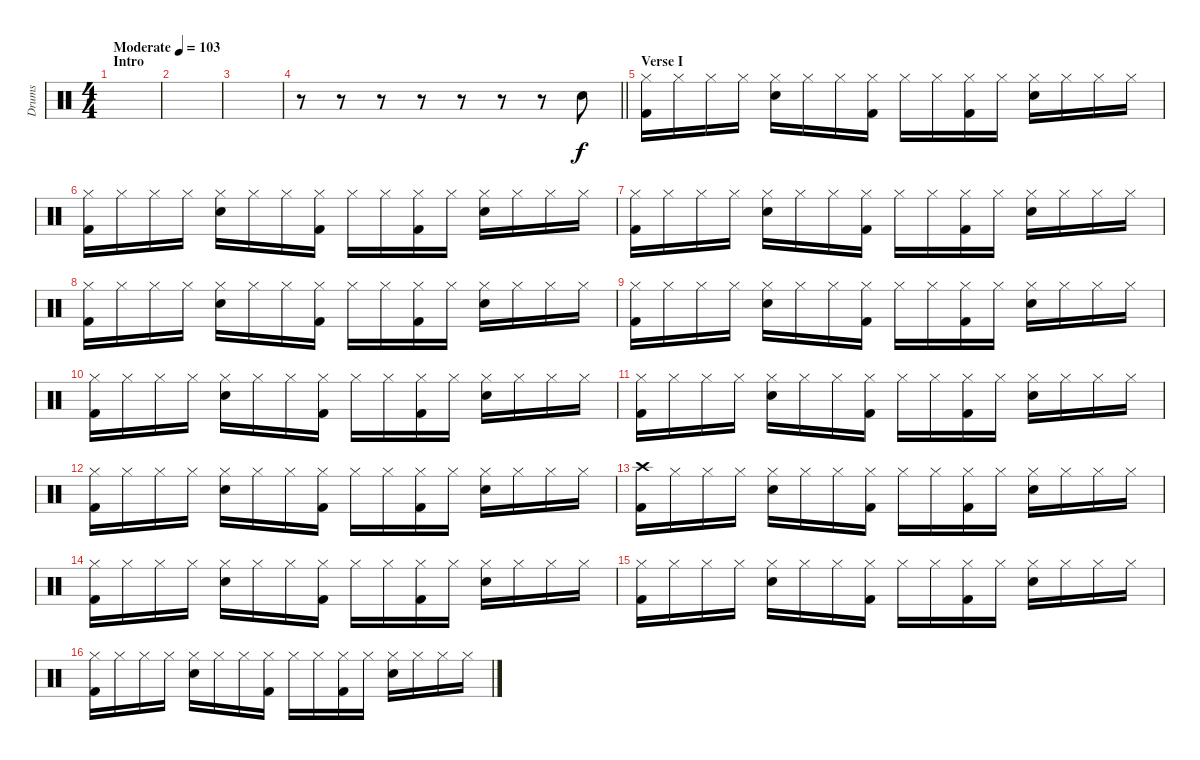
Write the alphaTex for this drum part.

\track ("Drums" "Drums") {instrument percussion}
\staff {score}
\articulation defaults
\ts (4 4)
\section ("" "Intro")
\tempo (103 "Moderate")
\clef neutral
\ks c
|
|
|
\barLineRight lightlight
r.8 r.8 r.8 r.8 r.8 r.8 r.8 "Electric Snare (hit)".8 |
\section ("" "Verse I")
("Hi-Hat (closed)" "Kick (hit) 2").16 "Hi-Hat (closed)".16 "Hi-Hat (closed)".16 "Hi-Hat (closed)".16 ("Hi-Hat (closed)" "Electric Snare (hit)").16 "Hi-Hat (closed)".16 "Hi-Hat (closed)".16 ("Hi-Hat (closed)" "Kick (hit) 2").16 "Hi-Hat (closed)".16 "Hi-Hat (closed)".16 ("Hi-Hat (closed)" "Kick (hit) 2").16 "Hi-Hat (closed)".16 ("Hi-Hat (closed)" "Electric Snare (hit)").16 "Hi-Hat (closed)".16 "Hi-Hat (closed)".16 "Hi-Hat (closed)".16 |
("Hi-Hat (closed)" "Kick (hit) 2").16 "Hi-Hat (closed)".16 "Hi-Hat (closed)".16 "Hi-Hat (closed)".16 ("Hi-Hat (closed)" "Electric Snare (hit)").16 "Hi-Hat (closed)".16 "Hi-Hat (closed)".16 ("Hi-Hat (closed)" "Kick (hit) 2").16 "Hi-Hat (closed)".16 "Hi-Hat (closed)".16 ("Hi-Hat (closed)" "Kick (hit) 2").16 "Hi-Hat (closed)".16 ("Hi-Hat (closed)" "Electric Snare (hit)").16 "Hi-Hat (closed)".16 "Hi-Hat (closed)".16 "Hi-Hat (closed)".16 |
("Hi-Hat (closed)" "Kick (hit) 2").16 "Hi-Hat (closed)".16 "Hi-Hat (closed)".16 "Hi-Hat (closed)".16 ("Hi-Hat (closed)" "Electric Snare (hit)").16 "Hi-Hat (closed)".16 "Hi-Hat (closed)".16 ("Hi-Hat (closed)" "Kick (hit) 2").16 "Hi-Hat (closed)".16 "Hi-Hat (closed)".16 ("Hi-Hat (closed)" "Kick (hit) 2").16 "Hi-Hat (closed)".16 ("Hi-Hat (closed)" "Electric Snare (hit)").16 "Hi-Hat (closed)".16 "Hi-Hat (closed)".16 "Hi-Hat (closed)".16 |
("Hi-Hat (closed)" "Kick (hit) 2").16 "Hi-Hat (closed)".16 "Hi-Hat (closed)".16 "Hi-Hat (closed)".16 ("Hi-Hat (closed)" "Electric Snare (hit)").16 "Hi-Hat (closed)".16 "Hi-Hat (closed)".16 ("Hi-Hat (closed)" "Kick (hit) 2").16 "Hi-Hat (closed)".16 "Hi-Hat (closed)".16 ("Hi-Hat (closed)" "Kick (hit) 2").16 "Hi-Hat (closed)".16 ("Hi-Hat (closed)" "Electric Snare (hit)").16 "Hi-Hat (closed)".16 "Hi-Hat (closed)".16 "Hi-Hat (closed)".16 |
("Hi-Hat (closed)" "Kick (hit) 2").16 "Hi-Hat (closed)".16 "Hi-Hat (closed)".16 "Hi-Hat (closed)".16 ("Hi-Hat (closed)" "Electric Snare (hit)").16 "Hi-Hat (closed)".16 "Hi-Hat (closed)".16 ("Hi-Hat (closed)" "Kick (hit) 2").16 "Hi-Hat (closed)".16 "Hi-Hat (closed)".16 ("Hi-Hat (closed)" "Kick (hit) 2").16 "Hi-Hat (closed)".16 ("Hi-Hat (closed)" "Electric Snare (hit)").16 "Hi-Hat (closed)".16 "Hi-Hat (closed)".16 "Hi-Hat (closed)".16 |
("Hi-Hat (closed)" "Kick (hit) 2").16 "Hi-Hat (closed)".16 "Hi-Hat (closed)".16 "Hi-Hat (closed)".16 ("Hi-Hat (closed)" "Electric Snare (hit)").16 "Hi-Hat (closed)".16 "Hi-Hat (closed)".16 ("Hi-Hat (closed)" "Kick (hit) 2").16 "Hi-Hat (closed)".16 "Hi-Hat (closed)".16 ("Hi-Hat (closed)" "Kick (hit) 2").16 "Hi-Hat (closed)".16 ("Hi-Hat (closed)" "Electric Snare (hit)").16 "Hi-Hat (closed)".16 "Hi-Hat (closed)".16 "Hi-Hat (closed)".16 |
("Hi-Hat (closed)" "Kick (hit) 2").16 "Hi-Hat (closed)".16 "Hi-Hat (closed)".16 "Hi-Hat (closed)".16 ("Hi-Hat (closed)" "Electric Snare (hit)").16 "Hi-Hat (closed)".16 "Hi-Hat (closed)".16 ("Hi-Hat (closed)" "Kick (hit) 2").16 "Hi-Hat (closed)".16 "Hi-Hat (closed)".16 ("Hi-Hat (closed)" "Kick (hit) 2").16 "Hi-Hat (closed)".16 ("Hi-Hat (closed)" "Electric Snare (hit)").16 "Hi-Hat (closed)".16 "Hi-Hat (closed)".16 "Hi-Hat (closed)".16 |
("Hi-Hat (closed)" "Kick (hit) 2").16 "Hi-Hat (closed)".16 "Hi-Hat (closed)".16 "Hi-Hat (closed)".16 ("Hi-Hat (closed)" "Electric Snare (hit)").16 "Hi-Hat (closed)".16 "Hi-Hat (closed)".16 ("Hi-Hat (closed)" "Kick (hit) 2").16 "Hi-Hat (closed)".16 "Hi-Hat (closed)".16 ("Hi-Hat (closed)" "Kick (hit) 2").16 "Hi-Hat (closed)".16 ("Hi-Hat (closed)" "Electric Snare (hit)").16 "Hi-Hat (closed)".16 "Hi-Hat (closed)".16 "Hi-Hat (closed)".16 |
("Crash high (hit)" "Kick (hit) 2").16 "Hi-Hat (closed)".16 "Hi-Hat (closed)".16 "Hi-Hat (closed)".16 ("Hi-Hat (closed)" "Electric Snare (hit)").16 "Hi-Hat (closed)".16 "Hi-Hat (closed)".16 ("Hi-Hat (closed)" "Kick (hit) 2").16 "Hi-Hat (closed)".16 "Hi-Hat (closed)".16 ("Hi-Hat (closed)" "Kick (hit) 2").16 "Hi-Hat (closed)".16 ("Hi-Hat (closed)" "Electric Snare (hit)").16 "Hi-Hat (closed)".16 "Hi-Hat (closed)".16 "Hi-Hat (closed)".16 |
("Hi-Hat (closed)" "Kick (hit) 2").16 "Hi-Hat (closed)".16 "Hi-Hat (closed)".16 "Hi-Hat (closed)".16 ("Hi-Hat (closed)" "Electric Snare (hit)").16 "Hi-Hat (closed)".16 "Hi-Hat (closed)".16 ("Hi-Hat (closed)" "Kick (hit) 2").16 "Hi-Hat (closed)".16 "Hi-Hat (closed)".16 ("Hi-Hat (closed)" "Kick (hit) 2").16 "Hi-Hat (closed)".16 ("Hi-Hat (closed)" "Electric Snare (hit)").16 "Hi-Hat (closed)".16 "Hi-Hat (closed)".16 "Hi-Hat (closed)".16 |
("Hi-Hat (closed)" "Kick (hit) 2").16 "Hi-Hat (closed)".16 "Hi-Hat (closed)".16 "Hi-Hat (closed)".16 ("Hi-Hat (closed)" "Electric Snare (hit)").16 "Hi-Hat (closed)".16 "Hi-Hat (closed)".16 ("Hi-Hat (closed)" "Kick (hit) 2").16 "Hi-Hat (closed)".16 "Hi-Hat (closed)".16 ("Hi-Hat (closed)" "Kick (hit) 2").16 "Hi-Hat (closed)".16 ("Hi-Hat (closed)" "Electric Snare (hit)").16 "Hi-Hat (closed)".16 "Hi-Hat (closed)".16 "Hi-Hat (closed)".16 |
("Hi-Hat (closed)" "Kick (hit) 2").16 "Hi-Hat (closed)".16 "Hi-Hat (closed)".16 "Hi-Hat (closed)".16 ("Hi-Hat (closed)" "Electric Snare (hit)").16 "Hi-Hat (closed)".16 "Hi-Hat (closed)".16 ("Hi-Hat (closed)" "Kick (hit) 2").16 "Hi-Hat (closed)".16 "Hi-Hat (closed)".16 ("Hi-Hat (closed)" "Kick (hit) 2").16 "Hi-Hat (closed)".16 ("Hi-Hat (closed)" "Electric Snare (hit)").16 "Hi-Hat (closed)".16 "Hi-Hat (closed)".16 "Hi-Hat (closed)".16
